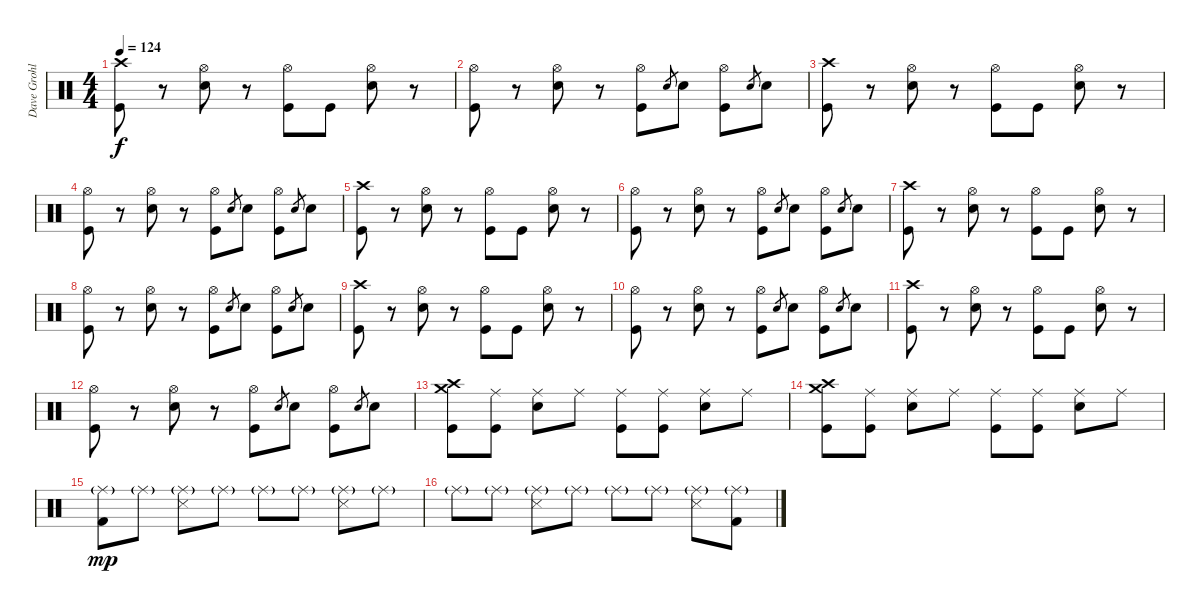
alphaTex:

\track ("Dave Grohl" "Dave Grohl") {instrument percussion}
\staff {score}
\articulation defaults
\ts (4 4)
\tempo 124
\clef neutral
\ks c
("Crash high (hit)" "Kick (hit)").8{dy f} r.8 ("Hi-Hat (open)" "Snare (hit) 2").8 r.8 ("Hi-Hat (open)" "Kick (hit)").8 "Kick (hit)".8 ("Hi-Hat (open)" "Snare (hit) 2").8 r.8 |
("Hi-Hat (open)" "Kick (hit)").8 r.8 ("Hi-Hat (open)" "Snare (hit) 2").8 r.8 ("Hi-Hat (open)" "Kick (hit)").8 "Snare (hit) 2".8{gr} "Snare (hit) 2".8 ("Hi-Hat (open)" "Kick (hit)").8 "Snare (hit) 2".8{gr} "Snare (hit) 2".8 |
("Crash high (hit)" "Kick (hit)").8 r.8 ("Hi-Hat (open)" "Snare (hit) 2").8 r.8 ("Hi-Hat (open)" "Kick (hit)").8 "Kick (hit)".8 ("Hi-Hat (open)" "Snare (hit) 2").8 r.8 |
("Hi-Hat (open)" "Kick (hit)").8 r.8 ("Hi-Hat (open)" "Snare (hit) 2").8 r.8 ("Hi-Hat (open)" "Kick (hit)").8 "Snare (hit) 2".8{gr} "Snare (hit) 2".8 ("Hi-Hat (open)" "Kick (hit)").8 "Snare (hit) 2".8{gr} "Snare (hit) 2".8 |
("Crash high (hit)" "Kick (hit)").8 r.8 ("Hi-Hat (open)" "Snare (hit) 2").8 r.8 ("Hi-Hat (open)" "Kick (hit)").8 "Kick (hit)".8 ("Hi-Hat (open)" "Snare (hit) 2").8 r.8 |
("Hi-Hat (open)" "Kick (hit)").8 r.8 ("Hi-Hat (open)" "Snare (hit) 2").8 r.8 ("Hi-Hat (open)" "Kick (hit)").8 "Snare (hit) 2".8{gr} "Snare (hit) 2".8 ("Hi-Hat (open)" "Kick (hit)").8 "Snare (hit) 2".8{gr} "Snare (hit) 2".8 |
("Crash high (hit)" "Kick (hit)").8 r.8 ("Hi-Hat (open)" "Snare (hit) 2").8 r.8 ("Hi-Hat (open)" "Kick (hit)").8 "Kick (hit)".8 ("Hi-Hat (open)" "Snare (hit) 2").8 r.8 |
("Hi-Hat (open)" "Kick (hit)").8 r.8 ("Hi-Hat (open)" "Snare (hit) 2").8 r.8 ("Hi-Hat (open)" "Kick (hit)").8 "Snare (hit) 2".8{gr} "Snare (hit) 2".8 ("Hi-Hat (open)" "Kick (hit)").8 "Snare (hit) 2".8{gr} "Snare (hit) 2".8 |
("Crash high (hit)" "Kick (hit)").8 r.8 ("Hi-Hat (open)" "Snare (hit) 2").8 r.8 ("Hi-Hat (open)" "Kick (hit)").8 "Kick (hit)".8 ("Hi-Hat (open)" "Snare (hit) 2").8 r.8 |
("Hi-Hat (open)" "Kick (hit)").8 r.8 ("Hi-Hat (open)" "Snare (hit) 2").8 r.8 ("Hi-Hat (open)" "Kick (hit)").8 "Snare (hit) 2".8{gr} "Snare (hit) 2".8 ("Hi-Hat (open)" "Kick (hit)").8 "Snare (hit) 2".8{gr} "Snare (hit) 2".8 |
("Crash high (hit)" "Kick (hit)").8 r.8 ("Hi-Hat (open)" "Snare (hit) 2").8 r.8 ("Hi-Hat (open)" "Kick (hit)").8 "Kick (hit)".8 ("Hi-Hat (open)" "Snare (hit) 2").8 r.8 |
("Hi-Hat (open)" "Kick (hit)").8 r.8 ("Hi-Hat (open)" "Snare (hit) 2").8 r.8 ("Hi-Hat (open)" "Kick (hit)").8 "Snare (hit) 2".8{gr} "Snare (hit) 2".8 ("Hi-Hat (open)" "Kick (hit)").8 "Snare (hit) 2".8{gr} "Snare (hit) 2".8 |
("Crash high (hit)" "Crash medium (hit)" "Kick (hit)").8 ("Ride (middle)" "Kick (hit)").8 ("Ride (middle)" "Electric Snare (hit)").8 "Ride (middle)".8 ("Ride (middle)" "Kick (hit)").8 ("Ride (middle)" "Kick (hit)").8 ("Ride (middle)" "Electric Snare (hit)").8 "Ride (middle)".8 |
("Crash high (hit)" "Crash medium (hit)" "Kick (hit)").8 ("Ride (middle)" "Kick (hit)").8 ("Ride (middle)" "Electric Snare (hit)").8 "Ride (middle)".8 ("Ride (middle)" "Kick (hit)").8 ("Ride (middle)" "Kick (hit)").8 ("Ride (middle)" "Electric Snare (hit)").8 "Ride (middle)".8 |
("Ride (middle)"{g} "Kick (hit) 2").8{dy mp} "Ride (middle)"{g}.8 ("Ride (middle)"{g} "Snare (side stick) 3").8 "Ride (middle)"{g}.8 "Ride (middle)"{g}.8 "Ride (middle)"{g}.8 ("Ride (middle)"{g} "Snare (side stick) 3").8 "Ride (middle)"{g}.8 |
"Ride (middle)"{g}.8 "Ride (middle)"{g}.8 ("Ride (middle)"{g} "Snare (side stick) 3").8 "Ride (middle)"{g}.8 "Ride (middle)"{g}.8 "Ride (middle)"{g}.8 ("Ride (middle)"{g} "Snare (side stick) 3").8 ("Ride (middle)"{g} "Kick (hit) 2").8
